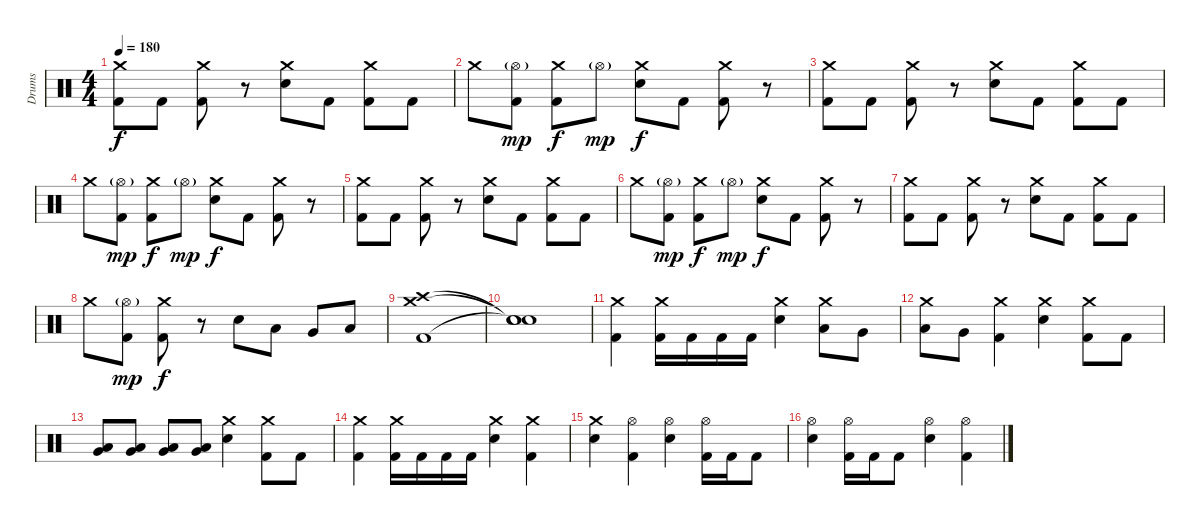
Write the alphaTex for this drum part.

\track ("Drums" "Drums") {instrument percussion}
\staff {score}
\articulation defaults
\ts (4 4)
\tempo 180
\clef neutral
\ks c
("Crash medium (hit)" "Kick (hit) 2").8{dy f} "Kick (hit) 2".8 ("Crash medium (hit)" "Kick (hit) 2").8 r.8 ("Crash medium (hit)" "Electric Snare (hit)").8 "Kick (hit) 2".8 ("Crash medium (hit)" "Kick (hit) 2").8 "Kick (hit) 2".8 |
"Crash medium (hit)".8 ("Hi-Hat (open)"{g} "Kick (hit) 2").8{dy mp} ("Crash medium (hit)" "Kick (hit) 2").8{dy f} "Hi-Hat (open)"{g}.8{dy mp} ("Crash medium (hit)" "Electric Snare (hit)").8{dy f} "Kick (hit) 2".8 ("Crash medium (hit)" "Kick (hit) 2").8 r.8 |
("Crash medium (hit)" "Kick (hit) 2").8 "Kick (hit) 2".8 ("Crash medium (hit)" "Kick (hit) 2").8 r.8 ("Crash medium (hit)" "Electric Snare (hit)").8 "Kick (hit) 2".8 ("Crash medium (hit)" "Kick (hit) 2").8 "Kick (hit) 2".8 |
"Crash medium (hit)".8 ("Hi-Hat (open)"{g} "Kick (hit) 2").8{dy mp} ("Crash medium (hit)" "Kick (hit) 2").8{dy f} "Hi-Hat (open)"{g}.8{dy mp} ("Crash medium (hit)" "Electric Snare (hit)").8{dy f} "Kick (hit) 2".8 ("Crash medium (hit)" "Kick (hit) 2").8 r.8 |
("Crash medium (hit)" "Kick (hit) 2").8 "Kick (hit) 2".8 ("Crash medium (hit)" "Kick (hit) 2").8 r.8 ("Crash medium (hit)" "Electric Snare (hit)").8 "Kick (hit) 2".8 ("Crash medium (hit)" "Kick (hit) 2").8 "Kick (hit) 2".8 |
"Crash medium (hit)".8 ("Hi-Hat (open)"{g} "Kick (hit) 2").8{dy mp} ("Crash medium (hit)" "Kick (hit) 2").8{dy f} "Hi-Hat (open)"{g}.8{dy mp} ("Crash medium (hit)" "Electric Snare (hit)").8{dy f} "Kick (hit) 2".8 ("Crash medium (hit)" "Kick (hit) 2").8 r.8 |
("Crash medium (hit)" "Kick (hit) 2").8 "Kick (hit) 2".8 ("Crash medium (hit)" "Kick (hit) 2").8 r.8 ("Crash medium (hit)" "Electric Snare (hit)").8 "Kick (hit) 2".8 ("Crash medium (hit)" "Kick (hit) 2").8 "Kick (hit) 2".8 |
"Crash medium (hit)".8 ("Hi-Hat (open)"{g} "Kick (hit) 2").8{dy mp} ("Crash medium (hit)" "Kick (hit) 2").8{dy f} r.8 "Electric Snare (hit)".8 "Low Tom (hit)".8 "Very Low Tom (hit)".8 "Low Floor Tom (hit)".8 |
("Crash medium (hit)" "Crash high (hit)" "Kick (hit) 2").1 |
("Snare (hit)"{t} "Snare (hit)"{t} "Snare (hit)"{t}).1 |
("Crash medium (hit)" "Kick (hit) 2").4 ("Crash medium (hit)" "Kick (hit) 2").16 "Kick (hit) 2".16 "Kick (hit) 2".16 "Kick (hit) 2".16 ("Crash medium (hit)" "Electric Snare (hit)").4 ("Crash medium (hit)" "Low Tom (hit)").8 "Very Low Tom (hit)".8 |
("Crash medium (hit)" "Low Tom (hit)").8 "Very Low Tom (hit)".8 ("Crash medium (hit)" "Kick (hit) 2").4 ("Crash medium (hit)" "Electric Snare (hit)").4 ("Crash medium (hit)" "Kick (hit) 2").8 "Kick (hit) 2".8 |
("Low Tom (hit)" "Very Low Tom (hit)").8{bd 60} ("Low Tom (hit)" "Very Low Tom (hit)").8{bd 60} ("Low Tom (hit)" "Very Low Tom (hit)").8{bd 60} ("Low Tom (hit)" "Very Low Tom (hit)").8{bd 60} ("Crash medium (hit)" "Electric Snare (hit)").4 ("Crash medium (hit)" "Kick (hit) 2").8 "Kick (hit) 2".8 |
("Crash medium (hit)" "Kick (hit) 2").4 ("Crash medium (hit)" "Kick (hit) 2").16 "Kick (hit) 2".16 "Kick (hit) 2".16 "Kick (hit) 2".16 ("Crash medium (hit)" "Electric Snare (hit)").4 ("Crash medium (hit)" "Kick (hit) 2").4 |
("Crash medium (hit)" "Electric Snare (hit)").4 ("Hi-Hat (open)" "Kick (hit) 2").4 ("Hi-Hat (open)" "Electric Snare (hit)").4 ("Hi-Hat (open)" "Kick (hit) 2").16 "Kick (hit) 2".16 "Kick (hit) 2".8 |
("Hi-Hat (open)" "Electric Snare (hit)").4 ("Hi-Hat (open)" "Kick (hit) 2").16 "Kick (hit) 2".16 "Kick (hit) 2".8 ("Hi-Hat (open)" "Electric Snare (hit)").4 ("Hi-Hat (open)" "Kick (hit) 2").4
